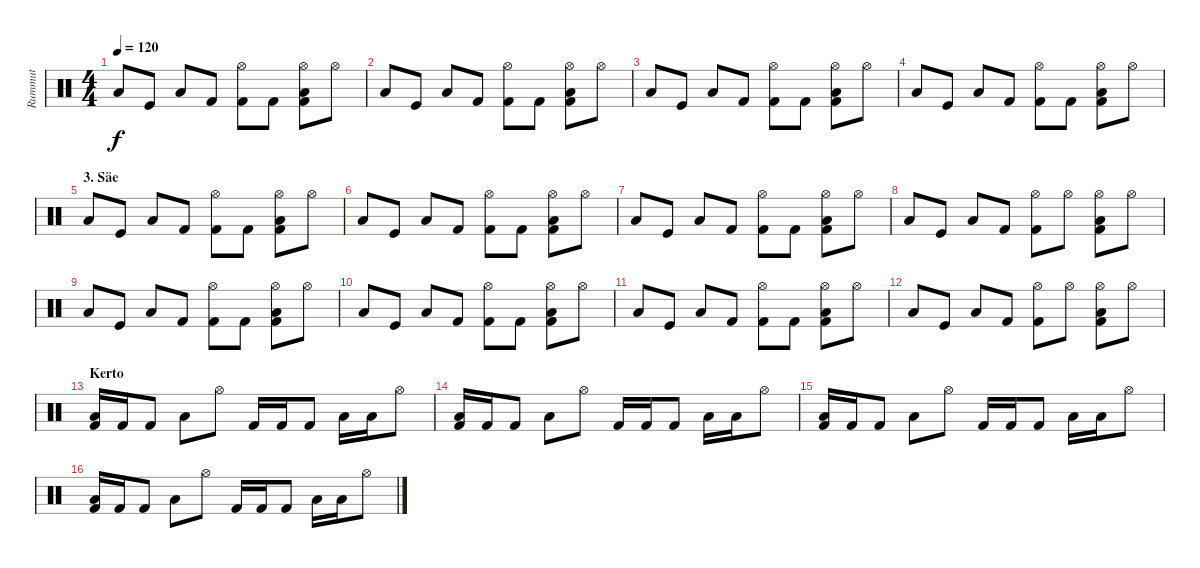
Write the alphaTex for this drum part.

\track ("Rummut" "Rummut") {instrument percussion}
\staff {score}
\articulation defaults
\ts (4 4)
\tempo 120
\clef neutral
\ks c "Low Tom (hit)".8{dy f} "Kick (hit)".8 "Low Tom (hit)".8 "Kick (hit) 2".8
("Hi-Hat (open)" "Kick (hit) 2").8 "Kick (hit) 2".8 ("Hi-Hat (open)" "Kick (hit) 2" "Low Tom (hit)").8 "Hi-Hat (open)".8 |
"Low Tom (hit)".8 "Kick (hit)".8 "Low Tom (hit)".8 "Kick (hit) 2".8 ("Hi-Hat (open)" "Kick (hit) 2").8 "Kick (hit) 2".8 ("Hi-Hat (open)" "Kick (hit) 2" "Low Tom (hit)").8 "Hi-Hat (open)".8 |
"Low Tom (hit)".8 "Kick (hit)".8 "Low Tom (hit)".8 "Kick (hit) 2".8 ("Hi-Hat (open)" "Kick (hit) 2").8 "Kick (hit) 2".8 ("Hi-Hat (open)" "Kick (hit) 2" "Low Tom (hit)").8 "Hi-Hat (open)".8 |
"Low Tom (hit)".8 "Kick (hit)".8 "Low Tom (hit)".8 "Kick (hit) 2".8 ("Hi-Hat (open)" "Kick (hit) 2").8 "Kick (hit) 2".8 ("Hi-Hat (open)" "Kick (hit) 2" "Low Tom (hit)").8 "Hi-Hat (open)".8 |
\section ("" "3. Säe")
"Low Tom (hit)".8 "Kick (hit)".8 "Low Tom (hit)".8 "Kick (hit) 2".8 ("Hi-Hat (open)" "Kick (hit) 2").8 "Kick (hit) 2".8 ("Hi-Hat (open)" "Kick (hit) 2" "Low Tom (hit)").8 "Hi-Hat (open)".8 |
"Low Tom (hit)".8 "Kick (hit)".8 "Low Tom (hit)".8 "Kick (hit) 2".8 ("Hi-Hat (open)" "Kick (hit) 2").8 "Kick (hit) 2".8 ("Hi-Hat (open)" "Kick (hit) 2" "Low Tom (hit)").8 "Hi-Hat (open)".8 |
"Low Tom (hit)".8 "Kick (hit)".8 "Low Tom (hit)".8 "Kick (hit) 2".8 ("Hi-Hat (open)" "Kick (hit) 2").8 "Kick (hit) 2".8 ("Hi-Hat (open)" "Kick (hit) 2" "Low Tom (hit)").8 "Hi-Hat (open)".8 |
"Low Tom (hit)".8 "Kick (hit)".8 "Low Tom (hit)".8 "Kick (hit) 2".8 ("Hi-Hat (open)" "Kick (hit) 2").8 "Hi-Hat (open)".8 ("Hi-Hat (open)" "Kick (hit) 2" "Low Tom (hit)").8 "Hi-Hat (open)".8 |
"Low Tom (hit)".8 "Kick (hit)".8 "Low Tom (hit)".8 "Kick (hit) 2".8 ("Hi-Hat (open)" "Kick (hit) 2").8 "Kick (hit) 2".8 ("Hi-Hat (open)" "Kick (hit) 2" "Low Tom (hit)").8 "Hi-Hat (open)".8 |
"Low Tom (hit)".8 "Kick (hit)".8 "Low Tom (hit)".8 "Kick (hit) 2".8 ("Hi-Hat (open)" "Kick (hit) 2").8 "Kick (hit) 2".8 ("Hi-Hat (open)" "Kick (hit) 2" "Low Tom (hit)").8 "Hi-Hat (open)".8 |
"Low Tom (hit)".8 "Kick (hit)".8 "Low Tom (hit)".8 "Kick (hit) 2".8 ("Hi-Hat (open)" "Kick (hit) 2").8 "Kick (hit) 2".8 ("Hi-Hat (open)" "Kick (hit) 2" "Low Tom (hit)").8 "Hi-Hat (open)".8 |
"Low Tom (hit)".8 "Kick (hit)".8 "Low Tom (hit)".8 "Kick (hit) 2".8 ("Hi-Hat (open)" "Kick (hit) 2").8 "Hi-Hat (open)".8 ("Hi-Hat (open)" "Kick (hit) 2" "Low Tom (hit)").8 "Hi-Hat (open)".8 |
\section ("" "Kerto")
("Kick (hit) 2" "Low Tom (hit)").16 "Kick (hit) 2".16 "Kick (hit) 2".8 "Low Tom (hit)".8 "Hi-Hat (open)".8 "Kick (hit) 2".16 "Kick (hit) 2".16 "Kick (hit) 2".8 "Low Tom (hit)".16 "Low Tom (hit)".16 "Hi-Hat (open)".8 |
("Kick (hit) 2" "Low Tom (hit)").16 "Kick (hit) 2".16 "Kick (hit) 2".8 "Low Tom (hit)".8 "Hi-Hat (open)".8 "Kick (hit) 2".16 "Kick (hit) 2".16 "Kick (hit) 2".8 "Low Tom (hit)".16 "Low Tom (hit)".16 "Hi-Hat (open)".8 |
("Kick (hit) 2" "Low Tom (hit)").16 "Kick (hit) 2".16 "Kick (hit) 2".8 "Low Tom (hit)".8 "Hi-Hat (open)".8 "Kick (hit) 2".16 "Kick (hit) 2".16 "Kick (hit) 2".8 "Low Tom (hit)".16 "Low Tom (hit)".16 "Hi-Hat (open)".8 |
("Kick (hit) 2" "Low Tom (hit)").16 "Kick (hit) 2".16 "Kick (hit) 2".8 "Low Tom (hit)".8 "Hi-Hat (open)".8 "Kick (hit) 2".16 "Kick (hit) 2".16 "Kick (hit) 2".8 "Low Tom (hit)".16 "Low Tom (hit)".16 "Hi-Hat (open)".8
